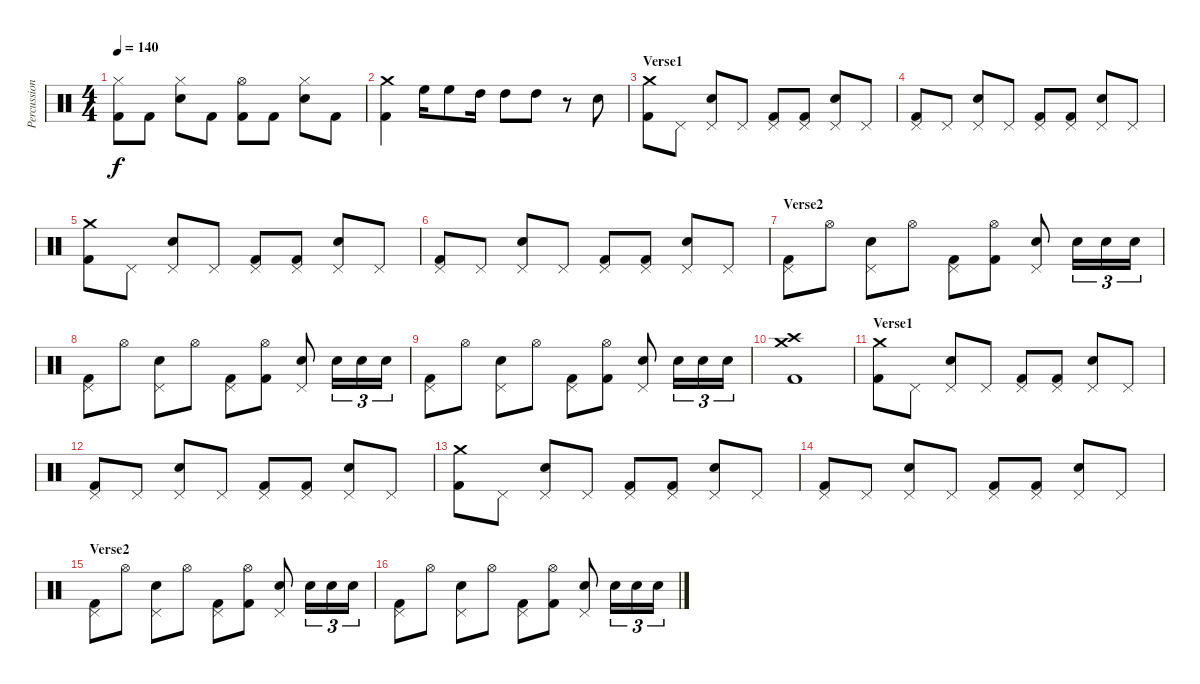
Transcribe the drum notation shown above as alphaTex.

\track ("Percussioni" "Percussion") {instrument percussion}
\staff {score}
\articulation defaults
\ts (4 4)
\tempo 140
\clef neutral
\ks c
("Hi-Hat (closed)" "Kick (hit) 2").8{dy f} "Kick (hit) 2".8 ("Hi-Hat (closed)" "Electric Snare (hit)").8 "Kick (hit) 2".8 ("Hi-Hat (open)" "Kick (hit) 2").8 "Kick (hit) 2".8 ("Hi-Hat (closed)" "Electric Snare (hit)").8 "Kick (hit) 2".8 |
("Crash medium (hit)" "Kick (hit) 2").4 "High Floor Tom (hit)".16 "High Floor Tom (hit)".8 "High Tom (hit)".16 "High Tom (hit)".8 "High Tom (hit)".8 r.8 "Electric Snare (hit)".8 |
\section ("" "Verse1")
("Crash medium (hit)" "Kick (hit) 2").8 "Pedal Hi-Hat (hit)".8 ("Pedal Hi-Hat (hit)" "Electric Snare (hit)").8 "Pedal Hi-Hat (hit)".8 ("Pedal Hi-Hat (hit)" "Kick (hit) 2").8 ("Pedal Hi-Hat (hit)" "Kick (hit) 2").8 ("Pedal Hi-Hat (hit)" "Electric Snare (hit)").8 "Pedal Hi-Hat (hit)".8 |
("Pedal Hi-Hat (hit)" "Kick (hit) 2").8 "Pedal Hi-Hat (hit)".8 ("Pedal Hi-Hat (hit)" "Electric Snare (hit)").8 "Pedal Hi-Hat (hit)".8 ("Pedal Hi-Hat (hit)" "Kick (hit) 2").8 ("Pedal Hi-Hat (hit)" "Kick (hit) 2").8 ("Pedal Hi-Hat (hit)" "Electric Snare (hit)").8 "Pedal Hi-Hat (hit)".8 |
("Crash medium (hit)" "Kick (hit) 2").8 "Pedal Hi-Hat (hit)".8 ("Pedal Hi-Hat (hit)" "Electric Snare (hit)").8 "Pedal Hi-Hat (hit)".8 ("Pedal Hi-Hat (hit)" "Kick (hit) 2").8 ("Pedal Hi-Hat (hit)" "Kick (hit) 2").8 ("Pedal Hi-Hat (hit)" "Electric Snare (hit)").8 "Pedal Hi-Hat (hit)".8 |
("Pedal Hi-Hat (hit)" "Kick (hit) 2").8 "Pedal Hi-Hat (hit)".8 ("Pedal Hi-Hat (hit)" "Electric Snare (hit)").8 "Pedal Hi-Hat (hit)".8 ("Pedal Hi-Hat (hit)" "Kick (hit) 2").8 ("Pedal Hi-Hat (hit)" "Kick (hit) 2").8 ("Pedal Hi-Hat (hit)" "Electric Snare (hit)").8 "Pedal Hi-Hat (hit)".8 |
\section ("" "Verse2")
("Pedal Hi-Hat (hit)" "Kick (hit) 2").8 "Hi-Hat (open)".8 ("Pedal Hi-Hat (hit)" "Electric Snare (hit)").8 "Hi-Hat (open)".8 ("Pedal Hi-Hat (hit)" "Kick (hit) 2").8 ("Hi-Hat (open)" "Kick (hit) 2").8 ("Pedal Hi-Hat (hit)" "Electric Snare (hit)").8 "Electric Snare (hit)".16{tu (3 2)} "Electric Snare (hit)".16{tu (3 2)} "Electric Snare (hit)".16{tu (3 2)} |
("Pedal Hi-Hat (hit)" "Kick (hit) 2").8 "Hi-Hat (open)".8 ("Pedal Hi-Hat (hit)" "Electric Snare (hit)").8 "Hi-Hat (open)".8 ("Pedal Hi-Hat (hit)" "Kick (hit) 2").8 ("Hi-Hat (open)" "Kick (hit) 2").8 ("Pedal Hi-Hat (hit)" "Electric Snare (hit)").8 "Electric Snare (hit)".16{tu (3 2)} "Electric Snare (hit)".16{tu (3 2)} "Electric Snare (hit)".16{tu (3 2)} |
("Pedal Hi-Hat (hit)" "Kick (hit) 2").8 "Hi-Hat (open)".8 ("Pedal Hi-Hat (hit)" "Electric Snare (hit)").8 "Hi-Hat (open)".8 ("Pedal Hi-Hat (hit)" "Kick (hit) 2").8 ("Hi-Hat (open)" "Kick (hit) 2").8 ("Pedal Hi-Hat (hit)" "Electric Snare (hit)").8 "Electric Snare (hit)".16{tu (3 2)} "Electric Snare (hit)".16{tu (3 2)} "Electric Snare (hit)".16{tu (3 2)} |
("Crash medium (hit)" "Crash high (hit)" "Kick (hit) 2").1 |
\section ("" "Verse1")
("Crash medium (hit)" "Kick (hit) 2").8 "Pedal Hi-Hat (hit)".8 ("Pedal Hi-Hat (hit)" "Electric Snare (hit)").8 "Pedal Hi-Hat (hit)".8 ("Pedal Hi-Hat (hit)" "Kick (hit) 2").8 ("Pedal Hi-Hat (hit)" "Kick (hit) 2").8 ("Pedal Hi-Hat (hit)" "Electric Snare (hit)").8 "Pedal Hi-Hat (hit)".8 |
("Pedal Hi-Hat (hit)" "Kick (hit) 2").8 "Pedal Hi-Hat (hit)".8 ("Pedal Hi-Hat (hit)" "Electric Snare (hit)").8 "Pedal Hi-Hat (hit)".8 ("Pedal Hi-Hat (hit)" "Kick (hit) 2").8 ("Pedal Hi-Hat (hit)" "Kick (hit) 2").8 ("Pedal Hi-Hat (hit)" "Electric Snare (hit)").8 "Pedal Hi-Hat (hit)".8 |
("Crash medium (hit)" "Kick (hit) 2").8 "Pedal Hi-Hat (hit)".8 ("Pedal Hi-Hat (hit)" "Electric Snare (hit)").8 "Pedal Hi-Hat (hit)".8 ("Pedal Hi-Hat (hit)" "Kick (hit) 2").8 ("Pedal Hi-Hat (hit)" "Kick (hit) 2").8 ("Pedal Hi-Hat (hit)" "Electric Snare (hit)").8 "Pedal Hi-Hat (hit)".8 |
("Pedal Hi-Hat (hit)" "Kick (hit) 2").8 "Pedal Hi-Hat (hit)".8 ("Pedal Hi-Hat (hit)" "Electric Snare (hit)").8 "Pedal Hi-Hat (hit)".8 ("Pedal Hi-Hat (hit)" "Kick (hit) 2").8 ("Pedal Hi-Hat (hit)" "Kick (hit) 2").8 ("Pedal Hi-Hat (hit)" "Electric Snare (hit)").8 "Pedal Hi-Hat (hit)".8 |
\section ("" "Verse2")
("Pedal Hi-Hat (hit)" "Kick (hit) 2").8 "Hi-Hat (open)".8 ("Pedal Hi-Hat (hit)" "Electric Snare (hit)").8 "Hi-Hat (open)".8 ("Pedal Hi-Hat (hit)" "Kick (hit) 2").8 ("Hi-Hat (open)" "Kick (hit) 2").8 ("Pedal Hi-Hat (hit)" "Electric Snare (hit)").8 "Electric Snare (hit)".16{tu (3 2)} "Electric Snare (hit)".16{tu (3 2)} "Electric Snare (hit)".16{tu (3 2)} |
("Pedal Hi-Hat (hit)" "Kick (hit) 2").8 "Hi-Hat (open)".8 ("Pedal Hi-Hat (hit)" "Electric Snare (hit)").8 "Hi-Hat (open)".8 ("Pedal Hi-Hat (hit)" "Kick (hit) 2").8 ("Hi-Hat (open)" "Kick (hit) 2").8 ("Pedal Hi-Hat (hit)" "Electric Snare (hit)").8 "Electric Snare (hit)".16{tu (3 2)} "Electric Snare (hit)".16{tu (3 2)} "Electric Snare (hit)".16{tu (3 2)}
